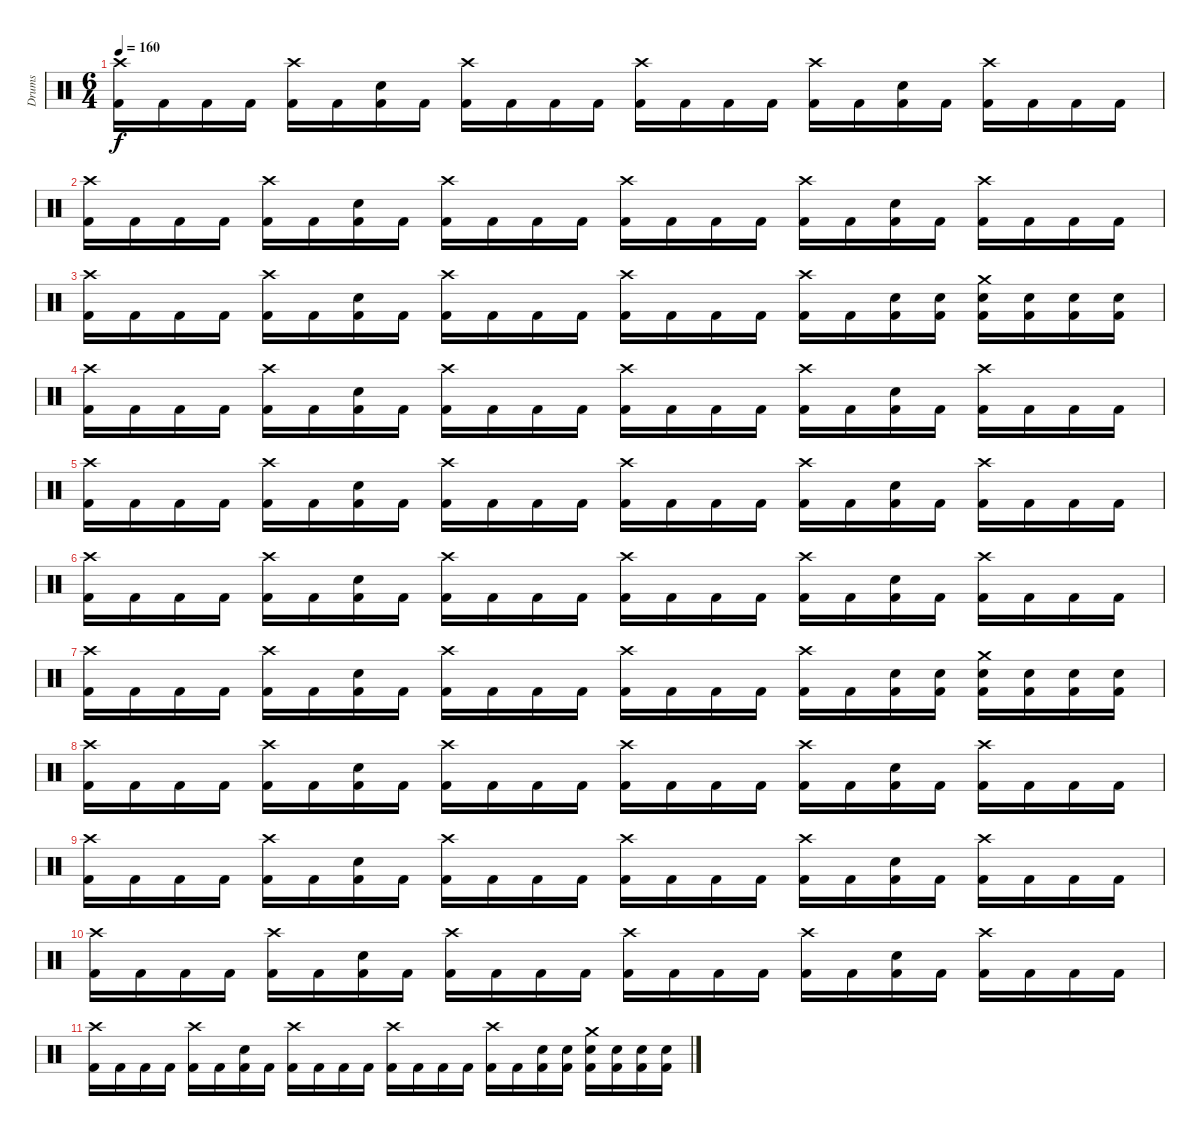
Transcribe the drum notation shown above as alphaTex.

\track ("Drums" "Drums") {instrument percussion}
\staff {score}
\articulation defaults
\ts (6 4)
\tempo 160
\clef neutral
\ks c
("Crash high (hit)" "Kick (hit) 2").16{dy f} "Kick (hit) 2".16 "Kick (hit) 2".16 "Kick (hit) 2".16 ("Crash high (hit)" "Kick (hit) 2").16 "Kick (hit) 2".16 ("Snare (hit) 2" "Kick (hit) 2").16 "Kick (hit) 2".16 ("Crash high (hit)" "Kick (hit) 2").16 "Kick (hit) 2".16 "Kick (hit) 2".16 "Kick (hit) 2".16 ("Crash high (hit)" "Kick (hit) 2").16 "Kick (hit) 2".16 "Kick (hit) 2".16 "Kick (hit) 2".16 ("Crash high (hit)" "Kick (hit) 2").16 "Kick (hit) 2".16 ("Snare (hit) 2" "Kick (hit) 2").16 "Kick (hit) 2".16 ("Crash high (hit)" "Kick (hit) 2").16 "Kick (hit) 2".16 "Kick (hit) 2".16 "Kick (hit) 2".16 |
("Crash high (hit)" "Kick (hit) 2").16 "Kick (hit) 2".16 "Kick (hit) 2".16 "Kick (hit) 2".16 ("Crash high (hit)" "Kick (hit) 2").16 "Kick (hit) 2".16 ("Snare (hit) 2" "Kick (hit) 2").16 "Kick (hit) 2".16 ("Crash high (hit)" "Kick (hit) 2").16 "Kick (hit) 2".16 "Kick (hit) 2".16 "Kick (hit) 2".16 ("Crash high (hit)" "Kick (hit) 2").16 "Kick (hit) 2".16 "Kick (hit) 2".16 "Kick (hit) 2".16 ("Crash high (hit)" "Kick (hit) 2").16 "Kick (hit) 2".16 ("Snare (hit) 2" "Kick (hit) 2").16 "Kick (hit) 2".16 ("Crash high (hit)" "Kick (hit) 2").16 "Kick (hit) 2".16 "Kick (hit) 2".16 "Kick (hit) 2".16 |
("Crash high (hit)" "Kick (hit) 2").16 "Kick (hit) 2".16 "Kick (hit) 2".16 "Kick (hit) 2".16 ("Crash high (hit)" "Kick (hit) 2").16 "Kick (hit) 2".16 ("Snare (hit) 2" "Kick (hit) 2").16 "Kick (hit) 2".16 ("Crash high (hit)" "Kick (hit) 2").16 "Kick (hit) 2".16 "Kick (hit) 2".16 "Kick (hit) 2".16 ("Crash high (hit)" "Kick (hit) 2").16 "Kick (hit) 2".16 "Kick (hit) 2".16 "Kick (hit) 2".16 ("Crash high (hit)" "Kick (hit) 2").16 "Kick (hit) 2".16 ("Snare (hit) 2" "Kick (hit) 2").16 ("Snare (hit) 2" "Kick (hit) 2").16 ("Crash medium (hit)" "Snare (hit) 2" "Kick (hit) 2").16 ("Snare (hit) 2" "Kick (hit) 2").16 ("Snare (hit) 2" "Kick (hit) 2").16 ("Snare (hit) 2" "Kick (hit) 2").16 |
("Crash high (hit)" "Kick (hit) 2").16 "Kick (hit) 2".16 "Kick (hit) 2".16 "Kick (hit) 2".16 ("Crash high (hit)" "Kick (hit) 2").16 "Kick (hit) 2".16 ("Snare (hit) 2" "Kick (hit) 2").16 "Kick (hit) 2".16 ("Crash high (hit)" "Kick (hit) 2").16 "Kick (hit) 2".16 "Kick (hit) 2".16 "Kick (hit) 2".16 ("Crash high (hit)" "Kick (hit) 2").16 "Kick (hit) 2".16 "Kick (hit) 2".16 "Kick (hit) 2".16 ("Crash high (hit)" "Kick (hit) 2").16 "Kick (hit) 2".16 ("Snare (hit) 2" "Kick (hit) 2").16 "Kick (hit) 2".16 ("Crash high (hit)" "Kick (hit) 2").16 "Kick (hit) 2".16 "Kick (hit) 2".16 "Kick (hit) 2".16 |
("Crash high (hit)" "Kick (hit) 2").16 "Kick (hit) 2".16 "Kick (hit) 2".16 "Kick (hit) 2".16 ("Crash high (hit)" "Kick (hit) 2").16 "Kick (hit) 2".16 ("Snare (hit) 2" "Kick (hit) 2").16 "Kick (hit) 2".16 ("Crash high (hit)" "Kick (hit) 2").16 "Kick (hit) 2".16 "Kick (hit) 2".16 "Kick (hit) 2".16 ("Crash high (hit)" "Kick (hit) 2").16 "Kick (hit) 2".16 "Kick (hit) 2".16 "Kick (hit) 2".16 ("Crash high (hit)" "Kick (hit) 2").16 "Kick (hit) 2".16 ("Snare (hit) 2" "Kick (hit) 2").16 "Kick (hit) 2".16 ("Crash high (hit)" "Kick (hit) 2").16 "Kick (hit) 2".16 "Kick (hit) 2".16 "Kick (hit) 2".16 |
("Crash high (hit)" "Kick (hit) 2").16 "Kick (hit) 2".16 "Kick (hit) 2".16 "Kick (hit) 2".16 ("Crash high (hit)" "Kick (hit) 2").16 "Kick (hit) 2".16 ("Snare (hit) 2" "Kick (hit) 2").16 "Kick (hit) 2".16 ("Crash high (hit)" "Kick (hit) 2").16 "Kick (hit) 2".16 "Kick (hit) 2".16 "Kick (hit) 2".16 ("Crash high (hit)" "Kick (hit) 2").16 "Kick (hit) 2".16 "Kick (hit) 2".16 "Kick (hit) 2".16 ("Crash high (hit)" "Kick (hit) 2").16 "Kick (hit) 2".16 ("Snare (hit) 2" "Kick (hit) 2").16 "Kick (hit) 2".16 ("Crash high (hit)" "Kick (hit) 2").16 "Kick (hit) 2".16 "Kick (hit) 2".16 "Kick (hit) 2".16 |
("Crash high (hit)" "Kick (hit) 2").16 "Kick (hit) 2".16 "Kick (hit) 2".16 "Kick (hit) 2".16 ("Crash high (hit)" "Kick (hit) 2").16 "Kick (hit) 2".16 ("Snare (hit) 2" "Kick (hit) 2").16 "Kick (hit) 2".16 ("Crash high (hit)" "Kick (hit) 2").16 "Kick (hit) 2".16 "Kick (hit) 2".16 "Kick (hit) 2".16 ("Crash high (hit)" "Kick (hit) 2").16 "Kick (hit) 2".16 "Kick (hit) 2".16 "Kick (hit) 2".16 ("Crash high (hit)" "Kick (hit) 2").16 "Kick (hit) 2".16 ("Snare (hit) 2" "Kick (hit) 2").16 ("Snare (hit) 2" "Kick (hit) 2").16 ("Crash medium (hit)" "Snare (hit) 2" "Kick (hit) 2").16 ("Snare (hit) 2" "Kick (hit) 2").16 ("Snare (hit) 2" "Kick (hit) 2").16 ("Snare (hit) 2" "Kick (hit) 2").16 |
("Crash high (hit)" "Kick (hit) 2").16 "Kick (hit) 2".16 "Kick (hit) 2".16 "Kick (hit) 2".16 ("Crash high (hit)" "Kick (hit) 2").16 "Kick (hit) 2".16 ("Snare (hit) 2" "Kick (hit) 2").16 "Kick (hit) 2".16 ("Crash high (hit)" "Kick (hit) 2").16 "Kick (hit) 2".16 "Kick (hit) 2".16 "Kick (hit) 2".16 ("Crash high (hit)" "Kick (hit) 2").16 "Kick (hit) 2".16 "Kick (hit) 2".16 "Kick (hit) 2".16 ("Crash high (hit)" "Kick (hit) 2").16 "Kick (hit) 2".16 ("Snare (hit) 2" "Kick (hit) 2").16 "Kick (hit) 2".16 ("Crash high (hit)" "Kick (hit) 2").16 "Kick (hit) 2".16 "Kick (hit) 2".16 "Kick (hit) 2".16 |
("Crash high (hit)" "Kick (hit) 2").16 "Kick (hit) 2".16 "Kick (hit) 2".16 "Kick (hit) 2".16 ("Crash high (hit)" "Kick (hit) 2").16 "Kick (hit) 2".16 ("Snare (hit) 2" "Kick (hit) 2").16 "Kick (hit) 2".16 ("Crash high (hit)" "Kick (hit) 2").16 "Kick (hit) 2".16 "Kick (hit) 2".16 "Kick (hit) 2".16 ("Crash high (hit)" "Kick (hit) 2").16 "Kick (hit) 2".16 "Kick (hit) 2".16 "Kick (hit) 2".16 ("Crash high (hit)" "Kick (hit) 2").16 "Kick (hit) 2".16 ("Snare (hit) 2" "Kick (hit) 2").16 "Kick (hit) 2".16 ("Crash high (hit)" "Kick (hit) 2").16 "Kick (hit) 2".16 "Kick (hit) 2".16 "Kick (hit) 2".16 |
("Crash high (hit)" "Kick (hit) 2").16 "Kick (hit) 2".16 "Kick (hit) 2".16 "Kick (hit) 2".16 ("Crash high (hit)" "Kick (hit) 2").16 "Kick (hit) 2".16 ("Snare (hit) 2" "Kick (hit) 2").16 "Kick (hit) 2".16 ("Crash high (hit)" "Kick (hit) 2").16 "Kick (hit) 2".16 "Kick (hit) 2".16 "Kick (hit) 2".16 ("Crash high (hit)" "Kick (hit) 2").16 "Kick (hit) 2".16 "Kick (hit) 2".16 "Kick (hit) 2".16 ("Crash high (hit)" "Kick (hit) 2").16 "Kick (hit) 2".16 ("Snare (hit) 2" "Kick (hit) 2").16 "Kick (hit) 2".16 ("Crash high (hit)" "Kick (hit) 2").16 "Kick (hit) 2".16 "Kick (hit) 2".16 "Kick (hit) 2".16 |
("Crash high (hit)" "Kick (hit) 2").16 "Kick (hit) 2".16 "Kick (hit) 2".16 "Kick (hit) 2".16 ("Crash high (hit)" "Kick (hit) 2").16 "Kick (hit) 2".16 ("Snare (hit) 2" "Kick (hit) 2").16 "Kick (hit) 2".16 ("Crash high (hit)" "Kick (hit) 2").16 "Kick (hit) 2".16 "Kick (hit) 2".16 "Kick (hit) 2".16 ("Crash high (hit)" "Kick (hit) 2").16 "Kick (hit) 2".16 "Kick (hit) 2".16 "Kick (hit) 2".16 ("Crash high (hit)" "Kick (hit) 2").16 "Kick (hit) 2".16 ("Snare (hit) 2" "Kick (hit) 2").16 ("Snare (hit) 2" "Kick (hit) 2").16 ("Crash medium (hit)" "Snare (hit) 2" "Kick (hit) 2").16 ("Snare (hit) 2" "Kick (hit) 2").16 ("Snare (hit) 2" "Kick (hit) 2").16 ("Snare (hit) 2" "Kick (hit) 2").16
